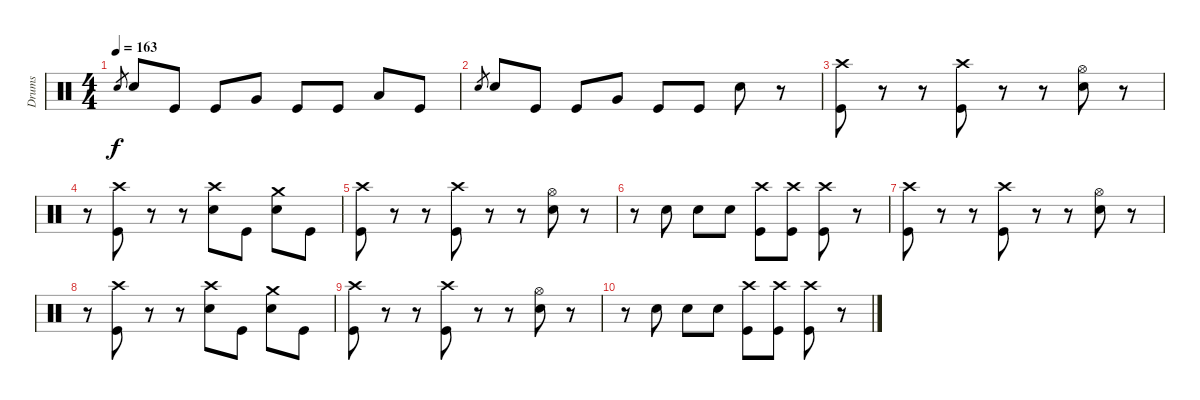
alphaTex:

\track ("Drums" "Drums") {instrument percussion}
\staff {score}
\articulation defaults
\ts (4 4)
\tempo 163
\clef neutral
\ks c "Snare (hit) 2".8{gr dy f} "Snare (hit) 2".8 "Kick (hit)".8 "Kick (hit)".8 "Very Low Tom (hit)".8 "Kick (hit)".8 "Kick (hit)".8 "Low Floor Tom (hit)".8 "Kick (hit)".8
|
"Snare (hit) 2".8{gr} "Snare (hit) 2".8 "Kick (hit)".8 "Kick (hit)".8 "Very Low Tom (hit)".8 "Kick (hit)".8 "Kick (hit)".8 "Snare (hit) 2".8 r.8 |
("Crash high (hit)" "Kick (hit)").8 r.8 r.8 ("Crash high (hit)" "Kick (hit)").8 r.8 r.8 ("Hi-Hat (open)" "Snare (hit) 2").8 r.8 |
r.8 ("Crash high (hit)" "Kick (hit)").8 r.8 r.8 ("Crash high (hit)" "Snare (hit) 2").8 "Kick (hit)".8 ("Crash medium (hit)" "Snare (hit) 2").8 "Kick (hit)".8 |
("Crash high (hit)" "Kick (hit)").8 r.8 r.8 ("Crash high (hit)" "Kick (hit)").8 r.8 r.8 ("Hi-Hat (open)" "Snare (hit) 2").8 r.8 |
r.8 "Snare (hit) 2".8 "Snare (hit) 2".8 "Snare (hit) 2".8 ("Crash high (hit)" "Kick (hit)").8 ("Crash high (hit)" "Kick (hit)").8 ("Crash high (hit)" "Kick (hit)").8 r.8 |
("Crash high (hit)" "Kick (hit)").8 r.8 r.8 ("Crash high (hit)" "Kick (hit)").8 r.8 r.8 ("Hi-Hat (open)" "Snare (hit) 2").8 r.8 |
r.8 ("Crash high (hit)" "Kick (hit)").8 r.8 r.8 ("Crash high (hit)" "Snare (hit) 2").8 "Kick (hit)".8 ("Crash medium (hit)" "Snare (hit) 2").8 "Kick (hit)".8 |
("Crash high (hit)" "Kick (hit)").8 r.8 r.8 ("Crash high (hit)" "Kick (hit)").8 r.8 r.8 ("Hi-Hat (open)" "Snare (hit) 2").8 r.8 |
r.8 "Snare (hit) 2".8 "Snare (hit) 2".8 "Snare (hit) 2".8 ("Crash high (hit)" "Kick (hit)").8 ("Crash high (hit)" "Kick (hit)").8 ("Crash high (hit)" "Kick (hit)").8 r.8
